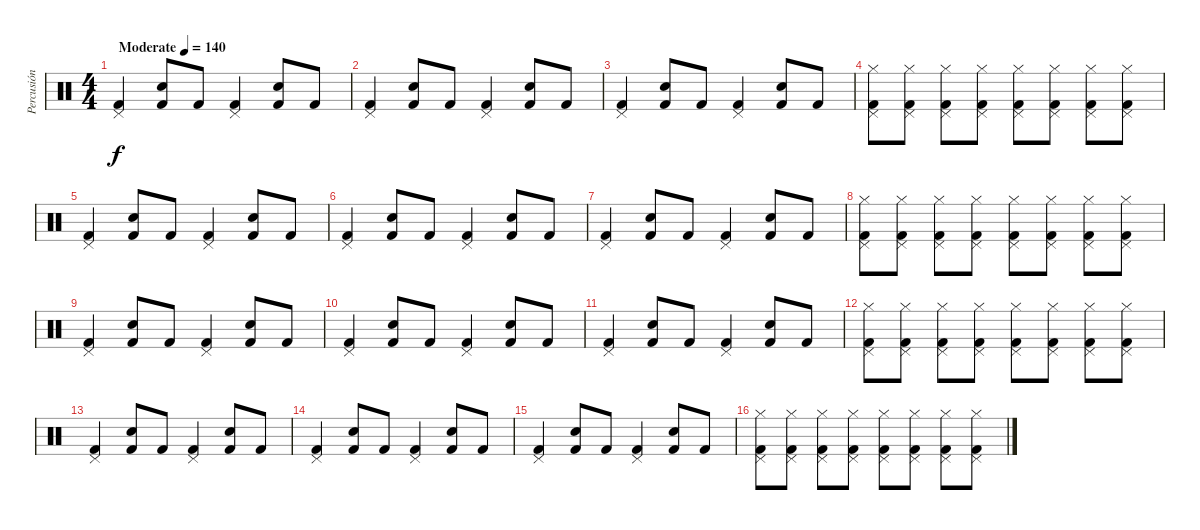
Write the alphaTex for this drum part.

\track ("Percusión" "Percusión") {instrument percussion}
\staff {score}
\articulation defaults
\ts (4 4)
\tempo (140 "Moderate")
\clef neutral
\ks c
("Kick (hit) 2" "Pedal Hi-Hat (hit)").4{dy f} ("Kick (hit) 2" "Snare (hit) 2").8 "Kick (hit) 2".8 ("Kick (hit) 2" "Pedal Hi-Hat (hit)").4 ("Kick (hit) 2" "Snare (hit) 2").8 "Kick (hit) 2".8 |
("Kick (hit) 2" "Pedal Hi-Hat (hit)").4 ("Kick (hit) 2" "Snare (hit) 2").8 "Kick (hit) 2".8 ("Kick (hit) 2" "Pedal Hi-Hat (hit)").4 ("Kick (hit) 2" "Snare (hit) 2").8 "Kick (hit) 2".8 |
("Kick (hit) 2" "Pedal Hi-Hat (hit)").4 ("Kick (hit) 2" "Snare (hit) 2").8 "Kick (hit) 2".8 ("Kick (hit) 2" "Pedal Hi-Hat (hit)").4 ("Kick (hit) 2" "Snare (hit) 2").8 "Kick (hit) 2".8 |
("Kick (hit) 2" "Hi-Hat (closed)" "Pedal Hi-Hat (hit)").8 ("Kick (hit) 2" "Hi-Hat (closed)" "Pedal Hi-Hat (hit)").8 ("Kick (hit) 2" "Hi-Hat (closed)" "Pedal Hi-Hat (hit)").8 ("Kick (hit) 2" "Hi-Hat (closed)" "Pedal Hi-Hat (hit)").8 ("Kick (hit) 2" "Hi-Hat (closed)" "Pedal Hi-Hat (hit)").8 ("Kick (hit) 2" "Hi-Hat (closed)" "Pedal Hi-Hat (hit)").8 ("Kick (hit) 2" "Hi-Hat (closed)" "Pedal Hi-Hat (hit)").8 ("Kick (hit) 2" "Hi-Hat (closed)" "Pedal Hi-Hat (hit)").8 |
("Kick (hit) 2" "Pedal Hi-Hat (hit)").4 ("Kick (hit) 2" "Snare (hit) 2").8 "Kick (hit) 2".8 ("Kick (hit) 2" "Pedal Hi-Hat (hit)").4 ("Kick (hit) 2" "Snare (hit) 2").8 "Kick (hit) 2".8 |
("Kick (hit) 2" "Pedal Hi-Hat (hit)").4 ("Kick (hit) 2" "Snare (hit) 2").8 "Kick (hit) 2".8 ("Kick (hit) 2" "Pedal Hi-Hat (hit)").4 ("Kick (hit) 2" "Snare (hit) 2").8 "Kick (hit) 2".8 |
("Kick (hit) 2" "Pedal Hi-Hat (hit)").4 ("Kick (hit) 2" "Snare (hit) 2").8 "Kick (hit) 2".8 ("Kick (hit) 2" "Pedal Hi-Hat (hit)").4 ("Kick (hit) 2" "Snare (hit) 2").8 "Kick (hit) 2".8 |
("Kick (hit) 2" "Hi-Hat (closed)" "Pedal Hi-Hat (hit)").8 ("Kick (hit) 2" "Hi-Hat (closed)" "Pedal Hi-Hat (hit)").8 ("Kick (hit) 2" "Hi-Hat (closed)" "Pedal Hi-Hat (hit)").8 ("Kick (hit) 2" "Hi-Hat (closed)" "Pedal Hi-Hat (hit)").8 ("Kick (hit) 2" "Hi-Hat (closed)" "Pedal Hi-Hat (hit)").8 ("Kick (hit) 2" "Hi-Hat (closed)" "Pedal Hi-Hat (hit)").8 ("Kick (hit) 2" "Hi-Hat (closed)" "Pedal Hi-Hat (hit)").8 ("Kick (hit) 2" "Hi-Hat (closed)" "Pedal Hi-Hat (hit)").8 |
("Kick (hit) 2" "Pedal Hi-Hat (hit)").4 ("Kick (hit) 2" "Snare (hit) 2").8 "Kick (hit) 2".8 ("Kick (hit) 2" "Pedal Hi-Hat (hit)").4 ("Kick (hit) 2" "Snare (hit) 2").8 "Kick (hit) 2".8 |
("Kick (hit) 2" "Pedal Hi-Hat (hit)").4 ("Kick (hit) 2" "Snare (hit) 2").8 "Kick (hit) 2".8 ("Kick (hit) 2" "Pedal Hi-Hat (hit)").4 ("Kick (hit) 2" "Snare (hit) 2").8 "Kick (hit) 2".8 |
("Kick (hit) 2" "Pedal Hi-Hat (hit)").4 ("Kick (hit) 2" "Snare (hit) 2").8 "Kick (hit) 2".8 ("Kick (hit) 2" "Pedal Hi-Hat (hit)").4 ("Kick (hit) 2" "Snare (hit) 2").8 "Kick (hit) 2".8 |
("Kick (hit) 2" "Hi-Hat (closed)" "Pedal Hi-Hat (hit)").8 ("Kick (hit) 2" "Hi-Hat (closed)" "Pedal Hi-Hat (hit)").8 ("Kick (hit) 2" "Hi-Hat (closed)" "Pedal Hi-Hat (hit)").8 ("Kick (hit) 2" "Hi-Hat (closed)" "Pedal Hi-Hat (hit)").8 ("Kick (hit) 2" "Hi-Hat (closed)" "Pedal Hi-Hat (hit)").8 ("Kick (hit) 2" "Hi-Hat (closed)" "Pedal Hi-Hat (hit)").8 ("Kick (hit) 2" "Hi-Hat (closed)" "Pedal Hi-Hat (hit)").8 ("Kick (hit) 2" "Hi-Hat (closed)" "Pedal Hi-Hat (hit)").8 |
("Kick (hit) 2" "Pedal Hi-Hat (hit)").4 ("Kick (hit) 2" "Snare (hit) 2").8 "Kick (hit) 2".8 ("Kick (hit) 2" "Pedal Hi-Hat (hit)").4 ("Kick (hit) 2" "Snare (hit) 2").8 "Kick (hit) 2".8 |
("Kick (hit) 2" "Pedal Hi-Hat (hit)").4 ("Kick (hit) 2" "Snare (hit) 2").8 "Kick (hit) 2".8 ("Kick (hit) 2" "Pedal Hi-Hat (hit)").4 ("Kick (hit) 2" "Snare (hit) 2").8 "Kick (hit) 2".8 |
("Kick (hit) 2" "Pedal Hi-Hat (hit)").4 ("Kick (hit) 2" "Snare (hit) 2").8 "Kick (hit) 2".8 ("Kick (hit) 2" "Pedal Hi-Hat (hit)").4 ("Kick (hit) 2" "Snare (hit) 2").8 "Kick (hit) 2".8 |
("Kick (hit) 2" "Hi-Hat (closed)" "Pedal Hi-Hat (hit)").8 ("Kick (hit) 2" "Hi-Hat (closed)" "Pedal Hi-Hat (hit)").8 ("Kick (hit) 2" "Hi-Hat (closed)" "Pedal Hi-Hat (hit)").8 ("Kick (hit) 2" "Hi-Hat (closed)" "Pedal Hi-Hat (hit)").8 ("Kick (hit) 2" "Hi-Hat (closed)" "Pedal Hi-Hat (hit)").8 ("Kick (hit) 2" "Hi-Hat (closed)" "Pedal Hi-Hat (hit)").8 ("Kick (hit) 2" "Hi-Hat (closed)" "Pedal Hi-Hat (hit)").8 ("Kick (hit) 2" "Hi-Hat (closed)" "Pedal Hi-Hat (hit)").8
